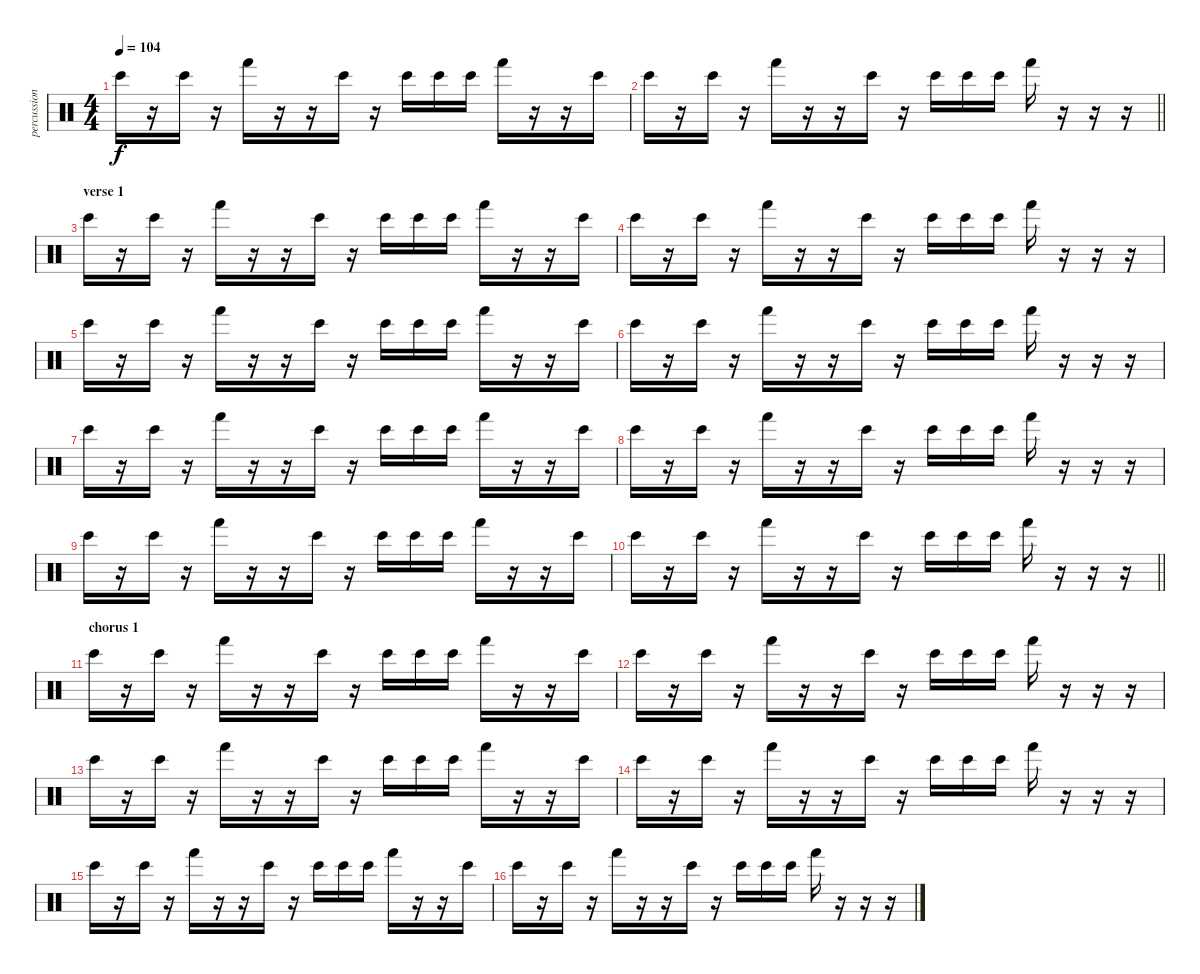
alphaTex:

\track ("percussion" "percussion") {instrument percussion}
\staff {score}
\articulation defaults
\ts (4 4)
\tempo 104
\clef neutral
\ks c "Bongo High (hit)".16{dy f}
r.16 "Bongo High (hit)".16 r.16 "Hand (hit)".16 r.16 r.16 "Bongo High (hit)".16 r.16 "Bongo High (hit)".16 "Bongo High (hit)".16 "Bongo High (hit)".16 "Hand (hit)".16 r.16 r.16 "Bongo High (hit)".16 |
\barLineRight lightlight "Bongo High (hit)".16
r.16 "Bongo High (hit)".16 r.16 "Hand (hit)".16 r.16 r.16 "Bongo High (hit)".16 r.16 "Bongo High (hit)".16 "Bongo High (hit)".16 "Bongo High (hit)".16 "Hand (hit)".16 r.16 r.16 r.16 |
\section ("" "verse 1")
"Bongo High (hit)".16 r.16 "Bongo High (hit)".16 r.16 "Hand (hit)".16 r.16 r.16 "Bongo High (hit)".16 r.16 "Bongo High (hit)".16 "Bongo High (hit)".16 "Bongo High (hit)".16 "Hand (hit)".16 r.16 r.16 "Bongo High (hit)".16 |
"Bongo High (hit)".16 r.16 "Bongo High (hit)".16 r.16 "Hand (hit)".16 r.16 r.16 "Bongo High (hit)".16 r.16 "Bongo High (hit)".16 "Bongo High (hit)".16 "Bongo High (hit)".16 "Hand (hit)".16 r.16 r.16 r.16 |
"Bongo High (hit)".16 r.16 "Bongo High (hit)".16 r.16 "Hand (hit)".16 r.16 r.16 "Bongo High (hit)".16 r.16 "Bongo High (hit)".16 "Bongo High (hit)".16 "Bongo High (hit)".16 "Hand (hit)".16 r.16 r.16 "Bongo High (hit)".16 |
"Bongo High (hit)".16 r.16 "Bongo High (hit)".16 r.16 "Hand (hit)".16 r.16 r.16 "Bongo High (hit)".16 r.16 "Bongo High (hit)".16 "Bongo High (hit)".16 "Bongo High (hit)".16 "Hand (hit)".16 r.16 r.16 r.16 |
"Bongo High (hit)".16 r.16 "Bongo High (hit)".16 r.16 "Hand (hit)".16 r.16 r.16 "Bongo High (hit)".16 r.16 "Bongo High (hit)".16 "Bongo High (hit)".16 "Bongo High (hit)".16 "Hand (hit)".16 r.16 r.16 "Bongo High (hit)".16 |
"Bongo High (hit)".16 r.16 "Bongo High (hit)".16 r.16 "Hand (hit)".16 r.16 r.16 "Bongo High (hit)".16 r.16 "Bongo High (hit)".16 "Bongo High (hit)".16 "Bongo High (hit)".16 "Hand (hit)".16 r.16 r.16 r.16 |
"Bongo High (hit)".16 r.16 "Bongo High (hit)".16 r.16 "Hand (hit)".16 r.16 r.16 "Bongo High (hit)".16 r.16 "Bongo High (hit)".16 "Bongo High (hit)".16 "Bongo High (hit)".16 "Hand (hit)".16 r.16 r.16 "Bongo High (hit)".16 |
\barLineRight lightlight "Bongo High (hit)".16
r.16 "Bongo High (hit)".16 r.16 "Hand (hit)".16 r.16 r.16 "Bongo High (hit)".16 r.16 "Bongo High (hit)".16 "Bongo High (hit)".16 "Bongo High (hit)".16 "Hand (hit)".16 r.16 r.16 r.16 |
\section ("" "chorus 1")
"Bongo High (hit)".16 r.16 "Bongo High (hit)".16 r.16 "Hand (hit)".16 r.16 r.16 "Bongo High (hit)".16 r.16 "Bongo High (hit)".16 "Bongo High (hit)".16 "Bongo High (hit)".16 "Hand (hit)".16 r.16 r.16 "Bongo High (hit)".16 |
"Bongo High (hit)".16 r.16 "Bongo High (hit)".16 r.16 "Hand (hit)".16 r.16 r.16 "Bongo High (hit)".16 r.16 "Bongo High (hit)".16 "Bongo High (hit)".16 "Bongo High (hit)".16 "Hand (hit)".16 r.16 r.16 r.16 |
"Bongo High (hit)".16 r.16 "Bongo High (hit)".16 r.16 "Hand (hit)".16 r.16 r.16 "Bongo High (hit)".16 r.16 "Bongo High (hit)".16 "Bongo High (hit)".16 "Bongo High (hit)".16 "Hand (hit)".16 r.16 r.16 "Bongo High (hit)".16 |
"Bongo High (hit)".16 r.16 "Bongo High (hit)".16 r.16 "Hand (hit)".16 r.16 r.16 "Bongo High (hit)".16 r.16 "Bongo High (hit)".16 "Bongo High (hit)".16 "Bongo High (hit)".16 "Hand (hit)".16 r.16 r.16 r.16 |
"Bongo High (hit)".16 r.16 "Bongo High (hit)".16 r.16 "Hand (hit)".16 r.16 r.16 "Bongo High (hit)".16 r.16 "Bongo High (hit)".16 "Bongo High (hit)".16 "Bongo High (hit)".16 "Hand (hit)".16 r.16 r.16 "Bongo High (hit)".16 |
"Bongo High (hit)".16 r.16 "Bongo High (hit)".16 r.16 "Hand (hit)".16 r.16 r.16 "Bongo High (hit)".16 r.16 "Bongo High (hit)".16 "Bongo High (hit)".16 "Bongo High (hit)".16 "Hand (hit)".16 r.16 r.16 r.16
